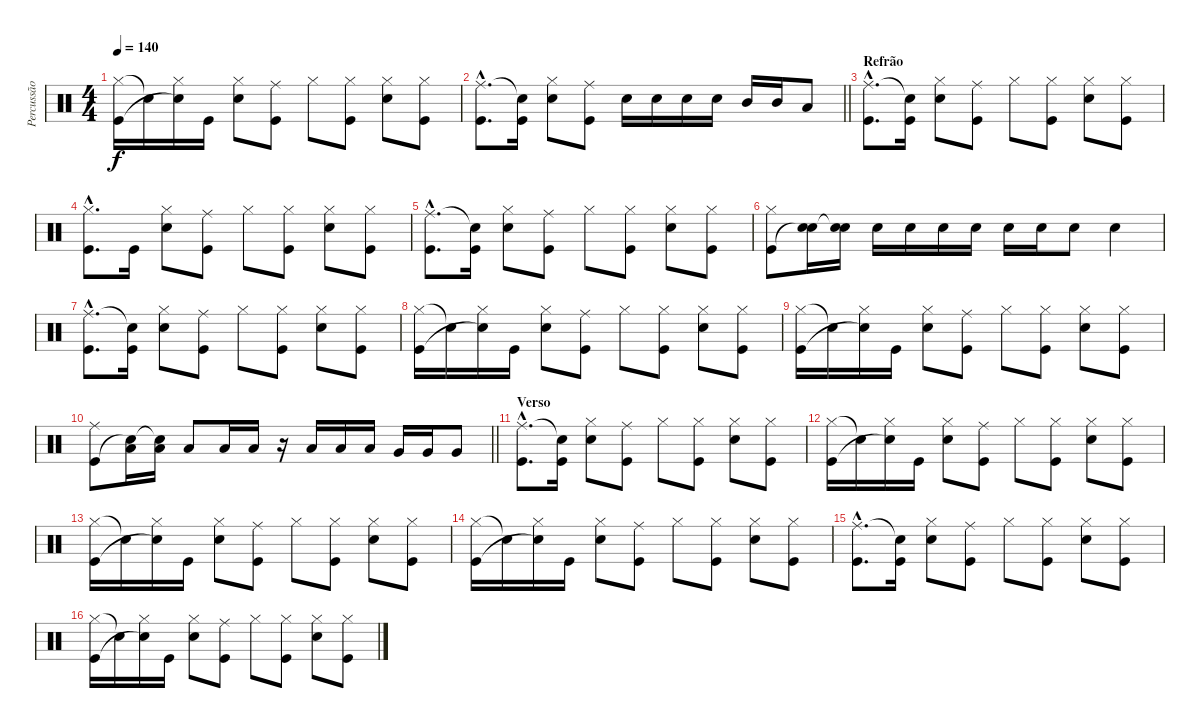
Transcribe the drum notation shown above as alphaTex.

\track ("Percussão" "Percussão") {instrument percussion}
\staff {score}
\articulation defaults
\ts (4 4)
\tempo 140
\clef neutral
\ks c
("Hi-Hat (closed)" "Kick (hit)").16{dy f} "Snare (hit)"{t}.16 ("Hi-Hat (closed)" "Snare (hit)"{t}).16 "Kick (hit)".16 ("Hi-Hat (closed)" "Snare (hit) 2").8 ("Ride (middle)" "Kick (hit)").8 "Hi-Hat (closed)".8 ("Hi-Hat (closed)" "Kick (hit)").8 ("Hi-Hat (closed)" "Snare (hit) 2").8 ("Hi-Hat (closed)" "Kick (hit)").8 |
\barLineRight lightlight
("Ride (middle)"{hac} "Kick (hit)"{hac}).8{d} ("Snare (hit)"{t} "Kick (hit)").16 ("Hi-Hat (closed)" "Snare (hit) 2").8 ("Ride (middle)" "Kick (hit)").8 "Snare (hit) 2".16 "Snare (hit) 2".16 "Snare (hit) 2".16 "Snare (hit) 2".16 "Mid Tom (hit)".16 "Mid Tom (hit)".16 "Low Tom (hit)".8 |
\section ("" "Refrão")
("Ride (middle)"{hac} "Kick (hit)"{hac}).8{d} ("Snare (hit)"{t} "Kick (hit)").16 ("Hi-Hat (closed)" "Snare (hit) 2").8 ("Ride (middle)" "Kick (hit)").8 "Hi-Hat (closed)".8 ("Hi-Hat (closed)" "Kick (hit)").8 ("Hi-Hat (closed)" "Snare (hit) 2").8 ("Hi-Hat (closed)" "Kick (hit)").8 |
("Hi-Hat (closed)"{hac} "Kick (hit)"{hac}).8{d} "Kick (hit)".16 ("Hi-Hat (closed)" "Snare (hit) 2").8 ("Ride (middle)" "Kick (hit)").8 "Hi-Hat (closed)".8 ("Hi-Hat (closed)" "Kick (hit)").8 ("Hi-Hat (closed)" "Snare (hit) 2").8 ("Hi-Hat (closed)" "Kick (hit)").8 |
("Ride (middle)"{hac} "Kick (hit)"{hac}).8{d} ("Snare (hit)"{t} "Kick (hit)").16 ("Hi-Hat (closed)" "Snare (hit) 2").8 ("Ride (middle)" "Kick (hit)").8 "Hi-Hat (closed)".8 ("Hi-Hat (closed)" "Kick (hit)").8 ("Hi-Hat (closed)" "Snare (hit) 2").8 ("Hi-Hat (closed)" "Kick (hit)").8 |
("Hi-Hat (closed)" "Kick (hit)").8 ("Snare (hit) 2" "Snare (hit)"{t}).16 ("Snare (hit) 2" "Snare (hit)"{t}).16 "Snare (hit) 2".16 "Snare (hit) 2".16 "Snare (hit) 2".16 "Snare (hit) 2".16 "Snare (hit) 2".16 "Snare (hit) 2".16 "Snare (hit) 2".8 "Snare (hit) 2".4 |
("Ride (middle)"{hac} "Kick (hit)"{hac}).8{d} ("Snare (hit)"{t} "Kick (hit)").16 ("Hi-Hat (closed)" "Snare (hit) 2").8 ("Ride (middle)" "Kick (hit)").8 "Hi-Hat (closed)".8 ("Hi-Hat (closed)" "Kick (hit)").8 ("Hi-Hat (closed)" "Snare (hit) 2").8 ("Hi-Hat (closed)" "Kick (hit)").8 |
("Hi-Hat (closed)" "Kick (hit)").16 "Snare (hit)"{t}.16 ("Hi-Hat (closed)" "Snare (hit)"{t}).16 "Kick (hit)".16 ("Hi-Hat (closed)" "Snare (hit) 2").8 ("Ride (middle)" "Kick (hit)").8 "Hi-Hat (closed)".8 ("Hi-Hat (closed)" "Kick (hit)").8 ("Hi-Hat (closed)" "Snare (hit) 2").8 ("Hi-Hat (closed)" "Kick (hit)").8 |
("Hi-Hat (closed)" "Kick (hit)").16 "Snare (hit)"{t}.16 ("Hi-Hat (closed)" "Snare (hit)"{t}).16 "Kick (hit)".16 ("Hi-Hat (closed)" "Snare (hit) 2").8 ("Ride (middle)" "Kick (hit)").8 "Hi-Hat (closed)".8 ("Hi-Hat (closed)" "Kick (hit)").8 ("Hi-Hat (closed)" "Snare (hit) 2").8 ("Hi-Hat (closed)" "Kick (hit)").8 |
\barLineRight lightlight
("Ride (middle)" "Kick (hit)").8 ("Low Tom (hit)" "Snare (hit)"{t}).16 ("Low Tom (hit)" "Snare (hit)"{t}).16 "Low Tom (hit)".8 "Low Tom (hit)".16 "Low Tom (hit)".16 r.16 "Low Tom (hit)".16 "Low Tom (hit)".16 "Low Tom (hit)".16 "Very Low Tom (hit)".16 "Very Low Tom (hit)".16 "Very Low Tom (hit)".8 |
\section ("" "Verso")
("Ride (middle)"{hac} "Kick (hit)"{hac}).8{d} ("Snare (hit)"{t} "Kick (hit)").16 ("Hi-Hat (closed)" "Snare (hit) 2").8 ("Ride (middle)" "Kick (hit)").8 "Hi-Hat (closed)".8 ("Hi-Hat (closed)" "Kick (hit)").8 ("Hi-Hat (closed)" "Snare (hit) 2").8 ("Hi-Hat (closed)" "Kick (hit)").8 |
("Hi-Hat (closed)" "Kick (hit)").16 "Snare (hit)"{t}.16 ("Hi-Hat (closed)" "Snare (hit)"{t}).16 "Kick (hit)".16 ("Hi-Hat (closed)" "Snare (hit) 2").8 ("Ride (middle)" "Kick (hit)").8 "Hi-Hat (closed)".8 ("Hi-Hat (closed)" "Kick (hit)").8 ("Hi-Hat (closed)" "Snare (hit) 2").8 ("Hi-Hat (closed)" "Kick (hit)").8 |
("Hi-Hat (closed)" "Kick (hit)").16 "Snare (hit)"{t}.16 ("Hi-Hat (closed)" "Snare (hit)"{t}).16 "Kick (hit)".16 ("Hi-Hat (closed)" "Snare (hit) 2").8 ("Ride (middle)" "Kick (hit)").8 "Hi-Hat (closed)".8 ("Hi-Hat (closed)" "Kick (hit)").8 ("Hi-Hat (closed)" "Snare (hit) 2").8 ("Hi-Hat (closed)" "Kick (hit)").8 |
("Hi-Hat (closed)" "Kick (hit)").16 "Snare (hit)"{t}.16 ("Hi-Hat (closed)" "Snare (hit)"{t}).16 "Kick (hit)".16 ("Hi-Hat (closed)" "Snare (hit) 2").8 ("Ride (middle)" "Kick (hit)").8 "Hi-Hat (closed)".8 ("Hi-Hat (closed)" "Kick (hit)").8 ("Hi-Hat (closed)" "Snare (hit) 2").8 ("Hi-Hat (closed)" "Kick (hit)").8 |
("Ride (middle)"{hac} "Kick (hit)"{hac}).8{d} ("Snare (hit)"{t} "Kick (hit)").16 ("Hi-Hat (closed)" "Snare (hit) 2").8 ("Ride (middle)" "Kick (hit)").8 "Hi-Hat (closed)".8 ("Hi-Hat (closed)" "Kick (hit)").8 ("Hi-Hat (closed)" "Snare (hit) 2").8 ("Hi-Hat (closed)" "Kick (hit)").8 |
("Hi-Hat (closed)" "Kick (hit)").16 "Snare (hit)"{t}.16 ("Hi-Hat (closed)" "Snare (hit)"{t}).16 "Kick (hit)".16 ("Hi-Hat (closed)" "Snare (hit) 2").8 ("Ride (middle)" "Kick (hit)").8 "Hi-Hat (closed)".8 ("Hi-Hat (closed)" "Kick (hit)").8 ("Hi-Hat (closed)" "Snare (hit) 2").8 ("Hi-Hat (closed)" "Kick (hit)").8
